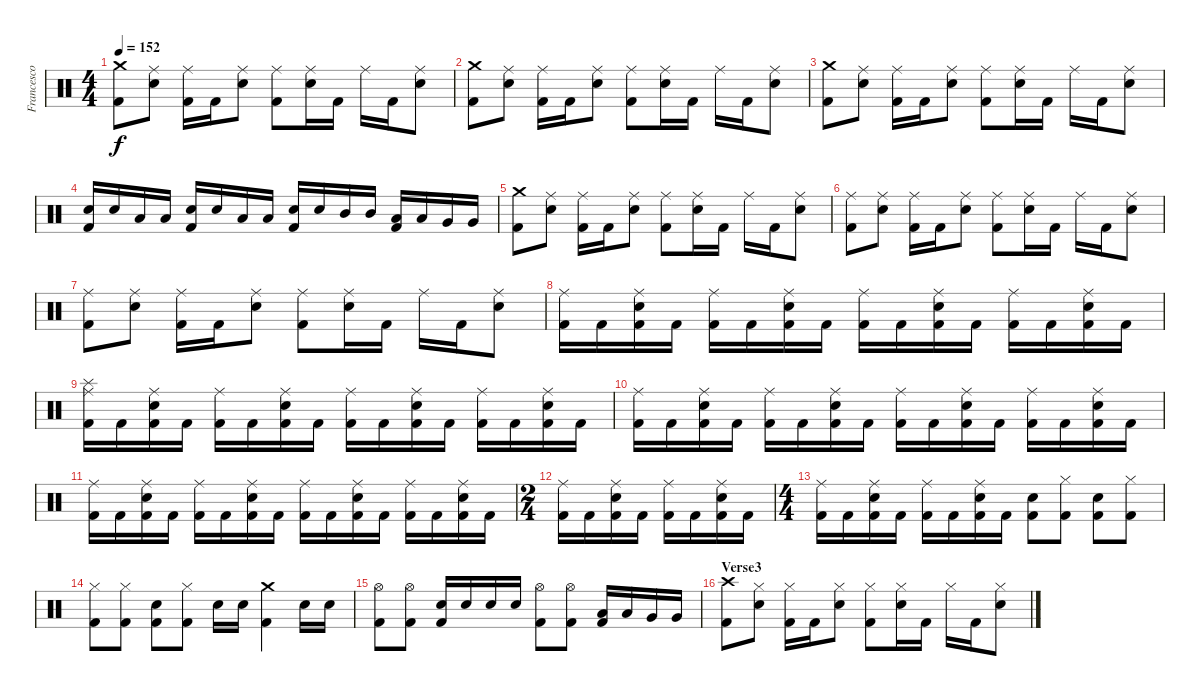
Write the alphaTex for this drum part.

\track ("Francesco Tresa" "Francesco ") {instrument percussion}
\staff {score}
\articulation defaults
\ts (4 4)
\tempo 152
\clef neutral
\ks c
("Kick (hit) 2" "Crash medium (hit)").8{dy f} ("Snare (hit) 2" "Ride (middle)").8 ("Kick (hit) 2" "Ride (middle)").16 "Kick (hit) 2".16 ("Snare (hit) 2" "Ride (middle)").8 ("Kick (hit) 2" "Ride (middle)").8 ("Snare (hit) 2" "Ride (middle)").16 "Kick (hit) 2".16 "Ride (middle)".16 "Kick (hit) 2".16 ("Snare (hit) 2" "Ride (middle)").8 |
("Kick (hit) 2" "Crash medium (hit)").8 ("Snare (hit) 2" "Ride (middle)").8 ("Kick (hit) 2" "Ride (middle)").16 "Kick (hit) 2".16 ("Snare (hit) 2" "Ride (middle)").8 ("Kick (hit) 2" "Ride (middle)").8 ("Snare (hit) 2" "Ride (middle)").16 "Kick (hit) 2".16 "Ride (middle)".16 "Kick (hit) 2".16 ("Snare (hit) 2" "Ride (middle)").8 |
("Kick (hit) 2" "Crash medium (hit)").8 ("Snare (hit) 2" "Ride (middle)").8 ("Kick (hit) 2" "Ride (middle)").16 "Kick (hit) 2".16 ("Snare (hit) 2" "Ride (middle)").8 ("Kick (hit) 2" "Ride (middle)").8 ("Snare (hit) 2" "Ride (middle)").16 "Kick (hit) 2".16 "Ride (middle)".16 "Kick (hit) 2".16 ("Snare (hit) 2" "Ride (middle)").8 |
("Snare (hit) 2" "Kick (hit) 2").16 "Snare (hit) 2".16 "Low Tom (hit)".16 "Low Tom (hit)".16 ("Snare (hit) 2" "Kick (hit) 2").16 "Snare (hit) 2".16 "Low Tom (hit)".16 "Low Tom (hit)".16 ("Snare (hit) 2" "Kick (hit) 2").16 "Snare (hit) 2".16 "Mid Tom (hit)".16 "Mid Tom (hit)".16 ("Low Tom (hit)" "Kick (hit) 2").16 "Low Tom (hit)".16 "Very Low Tom (hit)".16 "Very Low Tom (hit)".16 |
\section ("" "")
("Kick (hit) 2" "Crash medium (hit)").8 ("Snare (hit) 2" "Ride (middle)").8 ("Kick (hit) 2" "Ride (middle)").16 "Kick (hit) 2".16 ("Snare (hit) 2" "Ride (middle)").8 ("Kick (hit) 2" "Ride (middle)").8 ("Snare (hit) 2" "Ride (middle)").16 "Kick (hit) 2".16 "Ride (middle)".16 "Kick (hit) 2".16 ("Snare (hit) 2" "Ride (middle)").8 |
("Kick (hit) 2" "Ride (middle)").8 ("Snare (hit) 2" "Ride (middle)").8 ("Kick (hit) 2" "Ride (middle)").16 "Kick (hit) 2".16 ("Snare (hit) 2" "Ride (middle)").8 ("Kick (hit) 2" "Ride (middle)").8 ("Snare (hit) 2" "Ride (middle)").16 "Kick (hit) 2".16 "Ride (middle)".16 "Kick (hit) 2".16 ("Snare (hit) 2" "Ride (middle)").8 |
("Kick (hit) 2" "Ride (middle)").8 ("Snare (hit) 2" "Ride (middle)").8 ("Kick (hit) 2" "Ride (middle)").16 "Kick (hit) 2".16 ("Snare (hit) 2" "Ride (middle)").8 ("Kick (hit) 2" "Ride (middle)").8 ("Snare (hit) 2" "Ride (middle)").16 "Kick (hit) 2".16 "Ride (middle)".16 "Kick (hit) 2".16 ("Snare (hit) 2" "Ride (middle)").8 |
("Kick (hit) 2" "Ride (middle)").16 "Kick (hit) 2".16 ("Kick (hit) 2" "Snare (hit) 2" "Ride (middle)").16 "Kick (hit) 2".16 ("Kick (hit) 2" "Ride (middle)").16 "Kick (hit) 2".16 ("Kick (hit) 2" "Snare (hit) 2" "Ride (middle)").16 "Kick (hit) 2".16 ("Kick (hit) 2" "Ride (middle)").16 "Kick (hit) 2".16 ("Kick (hit) 2" "Snare (hit) 2" "Ride (middle)").16 "Kick (hit) 2".16 ("Kick (hit) 2" "Ride (middle)").16 "Kick (hit) 2".16 ("Kick (hit) 2" "Snare (hit) 2" "Ride (middle)").16 "Kick (hit) 2".16 |
("Kick (hit) 2" "Ride (middle)" "Splash (hit)").16 "Kick (hit) 2".16 ("Kick (hit) 2" "Snare (hit) 2" "Ride (middle)").16 "Kick (hit) 2".16 ("Kick (hit) 2" "Ride (middle)").16 "Kick (hit) 2".16 ("Kick (hit) 2" "Snare (hit) 2" "Ride (middle)").16 "Kick (hit) 2".16 ("Kick (hit) 2" "Ride (middle)").16 "Kick (hit) 2".16 ("Kick (hit) 2" "Snare (hit) 2" "Ride (middle)").16 "Kick (hit) 2".16 ("Kick (hit) 2" "Ride (middle)").16 "Kick (hit) 2".16 ("Kick (hit) 2" "Snare (hit) 2" "Ride (middle)").16 "Kick (hit) 2".16 |
("Kick (hit) 2" "Ride (middle)").16 "Kick (hit) 2".16 ("Kick (hit) 2" "Snare (hit) 2" "Ride (middle)").16 "Kick (hit) 2".16 ("Kick (hit) 2" "Ride (middle)").16 "Kick (hit) 2".16 ("Kick (hit) 2" "Snare (hit) 2" "Ride (middle)").16 "Kick (hit) 2".16 ("Kick (hit) 2" "Ride (middle)").16 "Kick (hit) 2".16 ("Kick (hit) 2" "Snare (hit) 2" "Ride (middle)").16 "Kick (hit) 2".16 ("Kick (hit) 2" "Ride (middle)").16 "Kick (hit) 2".16 ("Kick (hit) 2" "Snare (hit) 2" "Ride (middle)").16 "Kick (hit) 2".16 |
("Kick (hit) 2" "Ride (middle)").16 "Kick (hit) 2".16 ("Kick (hit) 2" "Snare (hit) 2" "Ride (middle)").16 "Kick (hit) 2".16 ("Kick (hit) 2" "Ride (middle)").16 "Kick (hit) 2".16 ("Kick (hit) 2" "Snare (hit) 2" "Ride (middle)").16 "Kick (hit) 2".16 ("Kick (hit) 2" "Ride (middle)").16 "Kick (hit) 2".16 ("Kick (hit) 2" "Snare (hit) 2" "Ride (middle)").16 "Kick (hit) 2".16 ("Kick (hit) 2" "Ride (middle)").16 "Kick (hit) 2".16 ("Kick (hit) 2" "Snare (hit) 2" "Ride (middle)").16 "Kick (hit) 2".16 |
\ts (2 4)
("Kick (hit) 2" "Ride (middle)").16 "Kick (hit) 2".16 ("Kick (hit) 2" "Snare (hit) 2" "Ride (middle)").16 "Kick (hit) 2".16 ("Kick (hit) 2" "Ride (middle)").16 "Kick (hit) 2".16 ("Kick (hit) 2" "Snare (hit) 2" "Ride (middle)").16 "Kick (hit) 2".16 |
\ts (4 4)
("Kick (hit) 2" "Ride (middle)").16 "Kick (hit) 2".16 ("Kick (hit) 2" "Snare (hit) 2" "Ride (middle)").16 "Kick (hit) 2".16 ("Kick (hit) 2" "Ride (middle)").16 "Kick (hit) 2".16 ("Kick (hit) 2" "Snare (hit) 2" "Ride (middle)").16 "Kick (hit) 2".16 ("Kick (hit) 2" "Snare (hit) 2").8 ("Kick (hit) 2" "Hi-Hat (closed)").8 ("Kick (hit) 2" "Snare (hit) 2").8 ("Kick (hit) 2" "Hi-Hat (closed)").8 |
("Kick (hit) 2" "Hi-Hat (closed)").8 ("Kick (hit) 2" "Hi-Hat (closed)").8 ("Kick (hit) 2" "Snare (hit) 2").8 ("Kick (hit) 2" "Hi-Hat (closed)").8 "Snare (hit) 2".16 "Snare (hit) 2".16 ("Crash medium (hit)" "Kick (hit) 2").4 "Snare (hit) 2".16 "Snare (hit) 2".16 |
("Hi-Hat (open)" "Kick (hit) 2").8 ("Hi-Hat (open)" "Kick (hit) 2").8 ("Snare (hit) 2" "Kick (hit) 2").16 "Snare (hit) 2".16 "Snare (hit) 2".16 "Snare (hit) 2".16 ("Hi-Hat (open)" "Kick (hit) 2").8 ("Hi-Hat (open)" "Kick (hit) 2").8 ("Kick (hit) 2" "Low Tom (hit)").16 "Low Tom (hit)".16 "Very Low Tom (hit)".16 "Very Low Tom (hit)".16 |
\section ("" "Verse3")
("Kick (hit) 2" "Crash high (hit)").8 ("Snare (hit) 2" "Hi-Hat (closed)").8 ("Kick (hit) 2" "Hi-Hat (closed)").16 "Kick (hit) 2".16 ("Snare (hit) 2" "Hi-Hat (closed)").8 ("Kick (hit) 2" "Hi-Hat (closed)").8 ("Snare (hit) 2" "Hi-Hat (closed)").16 "Kick (hit) 2".16 "Hi-Hat (closed)".16 "Kick (hit) 2".16 ("Snare (hit) 2" "Hi-Hat (closed)").8
